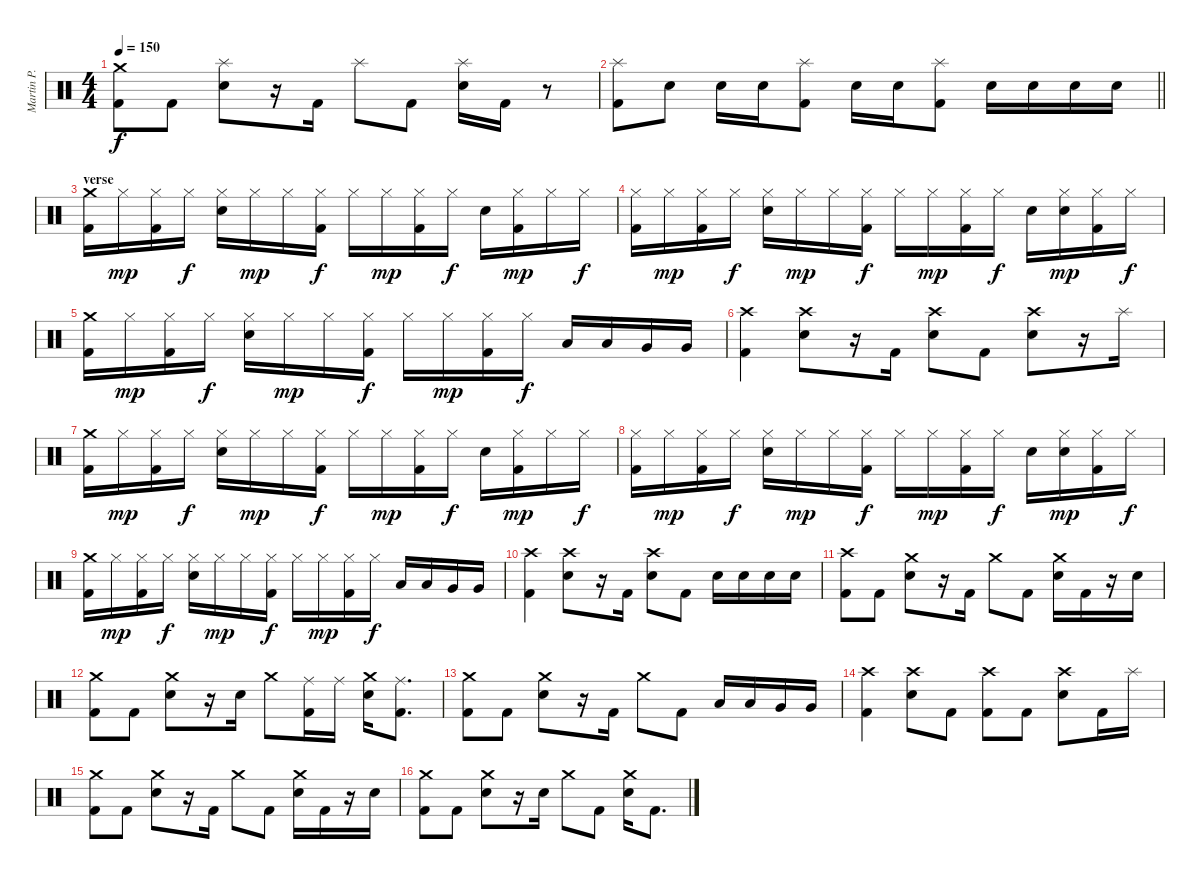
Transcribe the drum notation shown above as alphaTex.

\track ("Martin P." "Martin P.") {instrument percussion}
\staff {score}
\articulation defaults
\ts (4 4)
\tempo 150
\clef neutral
\ks c
("Crash medium (hit)" "Kick (hit) 2").8{dy f} "Kick (hit) 2".8 ("Splash (hit)" "Electric Snare (hit)").8 r.16 "Kick (hit) 2".16 "Splash (hit)".8 "Kick (hit) 2".8 ("Splash (hit)" "Electric Snare (hit)").16 "Kick (hit) 2".16 r.8 |
\barLineRight lightlight
("Kick (hit) 2" "Splash (hit)").8 "Electric Snare (hit)".8 "Electric Snare (hit)".16 "Electric Snare (hit)".16 ("Kick (hit) 2" "Splash (hit)").8 "Electric Snare (hit)".16 "Electric Snare (hit)".16 ("Kick (hit) 2" "Splash (hit)").8 "Electric Snare (hit)".16 "Electric Snare (hit)".16 "Electric Snare (hit)".16 "Electric Snare (hit)".16 |
\section ("" "verse")
("Crash medium (hit)" "Kick (hit) 2").16 "Hi-Hat (closed)".16{dy mp} ("Hi-Hat (closed)" "Kick (hit) 2").16 "Hi-Hat (closed)".16{dy f} ("Hi-Hat (closed)" "Electric Snare (hit)").16 "Hi-Hat (closed)".16{dy mp} "Hi-Hat (closed)".16 ("Hi-Hat (closed)" "Kick (hit) 2").16{dy f} "Hi-Hat (closed)".16 "Hi-Hat (closed)".16{dy mp} ("Hi-Hat (closed)" "Kick (hit) 2").16 "Hi-Hat (closed)".16{dy f} "Electric Snare (hit)".16 ("Hi-Hat (closed)" "Kick (hit) 2").16{dy mp} "Hi-Hat (closed)".16 "Hi-Hat (closed)".16{dy f} |
("Hi-Hat (closed)" "Kick (hit) 2").16 "Hi-Hat (closed)".16{dy mp} ("Hi-Hat (closed)" "Kick (hit) 2").16 "Hi-Hat (closed)".16{dy f} ("Hi-Hat (closed)" "Electric Snare (hit)").16 "Hi-Hat (closed)".16{dy mp} "Hi-Hat (closed)".16 ("Hi-Hat (closed)" "Kick (hit) 2").16{dy f} "Hi-Hat (closed)".16 "Hi-Hat (closed)".16{dy mp} ("Hi-Hat (closed)" "Kick (hit) 2").16 "Hi-Hat (closed)".16{dy f} "Electric Snare (hit)".16 ("Hi-Hat (closed)" "Electric Snare (hit)").16{dy mp} ("Hi-Hat (closed)" "Kick (hit) 2").16 "Hi-Hat (closed)".16{dy f} |
("Crash medium (hit)" "Kick (hit) 2").16 "Hi-Hat (closed)".16{dy mp} ("Hi-Hat (closed)" "Kick (hit) 2").16 "Hi-Hat (closed)".16{dy f} ("Hi-Hat (closed)" "Electric Snare (hit)").16 "Hi-Hat (closed)".16{dy mp} "Hi-Hat (closed)".16 ("Hi-Hat (closed)" "Kick (hit) 2").16{dy f} "Hi-Hat (closed)".16 "Hi-Hat (closed)".16{dy mp} ("Hi-Hat (closed)" "Kick (hit) 2").16 "Hi-Hat (closed)".16{dy f} "Low Tom (hit)".16 "Low Tom (hit)".16 "Very Low Tom (hit)".16 "Very Low Tom (hit)".16 |
("Crash high (hit)" "Kick (hit) 2").4 ("Crash high (hit)" "Electric Snare (hit)").8 r.16 "Kick (hit) 2".16 ("Crash high (hit)" "Electric Snare (hit)").8 "Kick (hit) 2".8 ("Crash high (hit)" "Electric Snare (hit)").8 r.16 "Splash (hit)".16 |
("Crash medium (hit)" "Kick (hit) 2").16 "Hi-Hat (closed)".16{dy mp} ("Hi-Hat (closed)" "Kick (hit) 2").16 "Hi-Hat (closed)".16{dy f} ("Hi-Hat (closed)" "Electric Snare (hit)").16 "Hi-Hat (closed)".16{dy mp} "Hi-Hat (closed)".16 ("Hi-Hat (closed)" "Kick (hit) 2").16{dy f} "Hi-Hat (closed)".16 "Hi-Hat (closed)".16{dy mp} ("Hi-Hat (closed)" "Kick (hit) 2").16 "Hi-Hat (closed)".16{dy f} "Electric Snare (hit)".16 ("Hi-Hat (closed)" "Kick (hit) 2").16{dy mp} "Hi-Hat (closed)".16 "Hi-Hat (closed)".16{dy f} |
("Hi-Hat (closed)" "Kick (hit) 2").16 "Hi-Hat (closed)".16{dy mp} ("Hi-Hat (closed)" "Kick (hit) 2").16 "Hi-Hat (closed)".16{dy f} ("Hi-Hat (closed)" "Electric Snare (hit)").16 "Hi-Hat (closed)".16{dy mp} "Hi-Hat (closed)".16 ("Hi-Hat (closed)" "Kick (hit) 2").16{dy f} "Hi-Hat (closed)".16 "Hi-Hat (closed)".16{dy mp} ("Hi-Hat (closed)" "Kick (hit) 2").16 "Hi-Hat (closed)".16{dy f} "Electric Snare (hit)".16 ("Hi-Hat (closed)" "Electric Snare (hit)").16{dy mp} ("Hi-Hat (closed)" "Kick (hit) 2").16 "Hi-Hat (closed)".16{dy f} |
("Crash medium (hit)" "Kick (hit) 2").16 "Hi-Hat (closed)".16{dy mp} ("Hi-Hat (closed)" "Kick (hit) 2").16 "Hi-Hat (closed)".16{dy f} ("Hi-Hat (closed)" "Electric Snare (hit)").16 "Hi-Hat (closed)".16{dy mp} "Hi-Hat (closed)".16 ("Hi-Hat (closed)" "Kick (hit) 2").16{dy f} "Hi-Hat (closed)".16 "Hi-Hat (closed)".16{dy mp} ("Hi-Hat (closed)" "Kick (hit) 2").16 "Hi-Hat (closed)".16{dy f} "Low Tom (hit)".16 "Low Tom (hit)".16 "Very Low Tom (hit)".16 "Very Low Tom (hit)".16 |
("Crash high (hit)" "Kick (hit) 2").4 ("Crash high (hit)" "Electric Snare (hit)").8 r.16 "Kick (hit) 2".16 ("Crash high (hit)" "Electric Snare (hit)").8 "Kick (hit) 2".8 "Electric Snare (hit)".16 "Electric Snare (hit)".16 "Electric Snare (hit)".16 "Electric Snare (hit)".16 |
("Crash high (hit)" "Kick (hit) 2").8 "Kick (hit) 2".8 ("Crash medium (hit)" "Electric Snare (hit)").8 r.16 "Kick (hit) 2".16 "Crash medium (hit)".8 "Kick (hit) 2".8 ("Crash medium (hit)" "Electric Snare (hit)").16 "Kick (hit) 2".16 r.16 "Electric Snare (hit)".16 |
("Crash medium (hit)" "Kick (hit) 2").8 "Kick (hit) 2".8 ("Crash medium (hit)" "Electric Snare (hit)").8 r.16 "Electric Snare (hit)".16 "Crash medium (hit)".8 ("Ride (middle)" "Kick (hit) 2").16 "Ride (middle)".16 ("Crash medium (hit)" "Electric Snare (hit)").16 ("Ride (middle)" "Kick (hit) 2").8{d} |
("Crash medium (hit)" "Kick (hit) 2").8 "Kick (hit) 2".8 ("Crash medium (hit)" "Electric Snare (hit)").8 r.16 "Kick (hit) 2".16 "Crash medium (hit)".8 "Kick (hit) 2".8 "Low Tom (hit)".16 "Low Tom (hit)".16 "Very Low Tom (hit)".16 "Very Low Tom (hit)".16 |
("Crash high (hit)" "Kick (hit) 2").4 ("Crash high (hit)" "Electric Snare (hit)").8 "Kick (hit) 2".8 ("Crash high (hit)" "Kick (hit) 2").8 "Kick (hit) 2".8 ("Crash high (hit)" "Electric Snare (hit)").8 "Kick (hit) 2".16 "Splash (hit)".16 |
("Crash medium (hit)" "Kick (hit) 2").8 "Kick (hit) 2".8 ("Crash medium (hit)" "Electric Snare (hit)").8 r.16 "Kick (hit) 2".16 "Crash medium (hit)".8 "Kick (hit) 2".8 ("Crash medium (hit)" "Electric Snare (hit)").16 "Kick (hit) 2".16 r.16 "Electric Snare (hit)".16 |
("Crash medium (hit)" "Kick (hit) 2").8 "Kick (hit) 2".8 ("Crash medium (hit)" "Electric Snare (hit)").8 r.16 "Electric Snare (hit)".16 "Crash medium (hit)".8 "Kick (hit) 2".8 ("Crash medium (hit)" "Electric Snare (hit)").16 "Kick (hit) 2".8{d}
